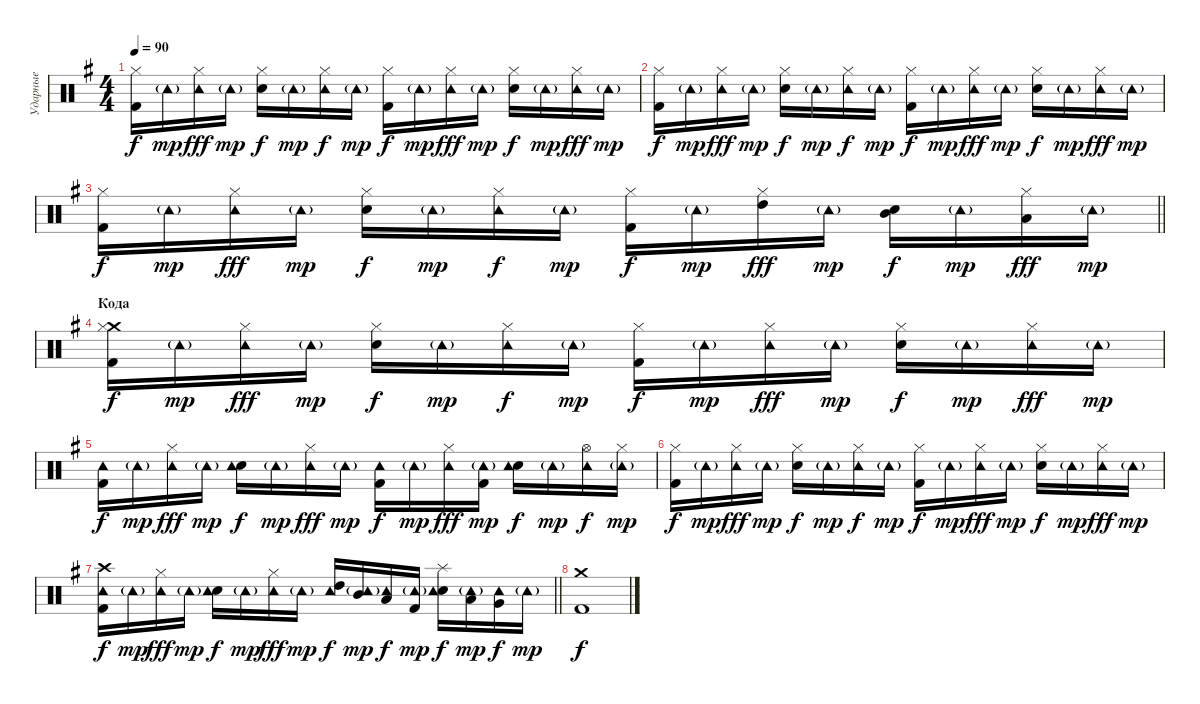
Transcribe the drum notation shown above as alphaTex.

\track ("Ударные" "Ударные") {instrument percussion}
\staff {score}
\articulation defaults
\ts (4 4)
\tempo 90
\clef neutral
\ks eminor
("Kick (hit) 2" "Hi-Hat (closed)").16{dy f} "Tambourine (hit)"{g}.16{dy mp} ("Hi-Hat (closed)" "Tambourine (hit)").16{dy fff} "Tambourine (hit)"{g}.16{dy mp} ("Electric Snare (hit)" "Hi-Hat (closed)").16{dy f} "Tambourine (hit)"{g}.16{dy mp} ("Hi-Hat (closed)" "Tambourine (hit)").16{dy f} "Tambourine (hit)"{g}.16{dy mp} ("Kick (hit) 2" "Hi-Hat (closed)").16{dy f} "Tambourine (hit)"{g}.16{dy mp} ("Hi-Hat (closed)" "Tambourine (hit)").16{dy fff} "Tambourine (hit)"{g}.16{dy mp} ("Electric Snare (hit)" "Hi-Hat (closed)").16{dy f} "Tambourine (hit)"{g}.16{dy mp} ("Hi-Hat (closed)" "Tambourine (hit)").16{dy fff} "Tambourine (hit)"{g}.16{dy mp} |
("Kick (hit) 2" "Hi-Hat (closed)").16{dy f} "Tambourine (hit)"{g}.16{dy mp} ("Hi-Hat (closed)" "Tambourine (hit)").16{dy fff} "Tambourine (hit)"{g}.16{dy mp} ("Electric Snare (hit)" "Hi-Hat (closed)").16{dy f} "Tambourine (hit)"{g}.16{dy mp} ("Hi-Hat (closed)" "Tambourine (hit)").16{dy f} "Tambourine (hit)"{g}.16{dy mp} ("Kick (hit) 2" "Hi-Hat (closed)").16{dy f} "Tambourine (hit)"{g}.16{dy mp} ("Hi-Hat (closed)" "Tambourine (hit)").16{dy fff} "Tambourine (hit)"{g}.16{dy mp} ("Electric Snare (hit)" "Hi-Hat (closed)").16{dy f} "Tambourine (hit)"{g}.16{dy mp} ("Hi-Hat (closed)" "Tambourine (hit)").16{dy fff} "Tambourine (hit)"{g}.16{dy mp} |
\barLineRight lightlight
("Kick (hit) 2" "Hi-Hat (closed)").16{dy f} "Tambourine (hit)"{g}.16{dy mp} ("Hi-Hat (closed)" "Tambourine (hit)").16{dy fff} "Tambourine (hit)"{g}.16{dy mp} ("Electric Snare (hit)" "Hi-Hat (closed)").16{dy f} "Tambourine (hit)"{g}.16{dy mp} ("Hi-Hat (closed)" "Tambourine (hit)").16{dy f} "Tambourine (hit)"{g}.16{dy mp} ("Kick (hit) 2" "Hi-Hat (closed)").16{dy f} "Tambourine (hit)"{g}.16{dy mp} ("Hi-Hat (closed)" "High Tom (hit)").16{dy fff} "Tambourine (hit)"{g}.16{dy mp} ("Electric Snare (hit)" "Mid Tom (hit)").16{dy f} "Tambourine (hit)"{g}.16{dy mp} ("Hi-Hat (closed)" "Low Tom (hit)").16{dy fff} "Tambourine (hit)"{g}.16{dy mp} |
\section ("" "Кода")
("Crash medium (hit)" "Kick (hit) 2" "Hi-Hat (closed)").16{dy f} "Tambourine (hit)"{g}.16{dy mp} ("Hi-Hat (closed)" "Tambourine (hit)").16{dy fff} "Tambourine (hit)"{g}.16{dy mp} ("Electric Snare (hit)" "Hi-Hat (closed)").16{dy f} "Tambourine (hit)"{g}.16{dy mp} ("Hi-Hat (closed)" "Tambourine (hit)").16{dy f} "Tambourine (hit)"{g}.16{dy mp} ("Kick (hit) 2" "Hi-Hat (closed)").16{dy f} "Tambourine (hit)"{g}.16{dy mp} ("Hi-Hat (closed)" "Tambourine (hit)").16{dy fff} "Tambourine (hit)"{g}.16{dy mp} ("Electric Snare (hit)" "Hi-Hat (closed)").16{dy f} "Tambourine (hit)"{g}.16{dy mp} ("Hi-Hat (closed)" "Tambourine (hit)").16{dy fff} "Tambourine (hit)"{g}.16{dy mp} |
("Kick (hit) 2" "Tambourine (hit)").16{dy f} "Tambourine (hit)"{g}.16{dy mp} ("Hi-Hat (closed)" "Tambourine (hit)").16{dy fff} "Tambourine (hit)"{g}.16{dy mp} ("Electric Snare (hit)" "Tambourine (hit)").16{dy f} "Tambourine (hit)"{g}.16{dy mp} ("Hi-Hat (closed)" "Tambourine (hit)").16{dy fff} "Tambourine (hit)"{g}.16{dy mp} ("Kick (hit) 2" "Tambourine (hit)").16{dy f} "Tambourine (hit)"{g}.16{dy mp} ("Hi-Hat (closed)" "Tambourine (hit)").16{dy fff} ("Kick (hit) 2" "Tambourine (hit)"{g}).16{dy mp} ("Electric Snare (hit)" "Tambourine (hit)").16{dy f} "Tambourine (hit)"{g}.16{dy mp} ("Hi-Hat (open)" "Tambourine (hit)").16{dy f} ("Hi-Hat (closed)" "Tambourine (hit)"{g}).16{dy mp} |
("Kick (hit) 2" "Hi-Hat (closed)").16{dy f} "Tambourine (hit)"{g}.16{dy mp} ("Hi-Hat (closed)" "Tambourine (hit)").16{dy fff} "Tambourine (hit)"{g}.16{dy mp} ("Electric Snare (hit)" "Hi-Hat (closed)").16{dy f} "Tambourine (hit)"{g}.16{dy mp} ("Hi-Hat (closed)" "Tambourine (hit)").16{dy f} "Tambourine (hit)"{g}.16{dy mp} ("Kick (hit) 2" "Hi-Hat (closed)").16{dy f} "Tambourine (hit)"{g}.16{dy mp} ("Hi-Hat (closed)" "Tambourine (hit)").16{dy fff} "Tambourine (hit)"{g}.16{dy mp} ("Electric Snare (hit)" "Hi-Hat (closed)").16{dy f} "Tambourine (hit)"{g}.16{dy mp} ("Hi-Hat (closed)" "Tambourine (hit)").16{dy fff} "Tambourine (hit)"{g}.16{dy mp} |
\barLineRight lightlight
("Crash high (hit)" "Kick (hit) 2" "Tambourine (hit)").16{dy f} "Tambourine (hit)"{g}.16{dy mp} ("Hi-Hat (closed)" "Tambourine (hit)").16{dy fff} "Tambourine (hit)"{g}.16{dy mp} ("Electric Snare (hit)" "Tambourine (hit)").16{dy f} "Tambourine (hit)"{g}.16{dy mp} ("Hi-Hat (closed)" "Tambourine (hit)").16{dy fff} "Tambourine (hit)"{g}.16{dy mp} ("High Tom (hit)" "Tambourine (hit)").16{dy f} ("Mid Tom (hit)" "Tambourine (hit)"{g}).16{dy mp} ("Low Tom (hit)" "Tambourine (hit)").16{dy f} ("Kick (hit) 2" "Tambourine (hit)"{g}).16{dy mp} ("Splash (hit)" "Electric Snare (hit)" "Tambourine (hit)").16{dy f} ("Low Tom (hit)" "Tambourine (hit)"{g}).16{dy mp} ("Very Low Tom (hit)" "Tambourine (hit)").16{dy f} "Tambourine (hit)"{g}.16{dy mp} |
\section ("" "")
("Crash medium (hit)" "Kick (hit) 2").1{dy f}
